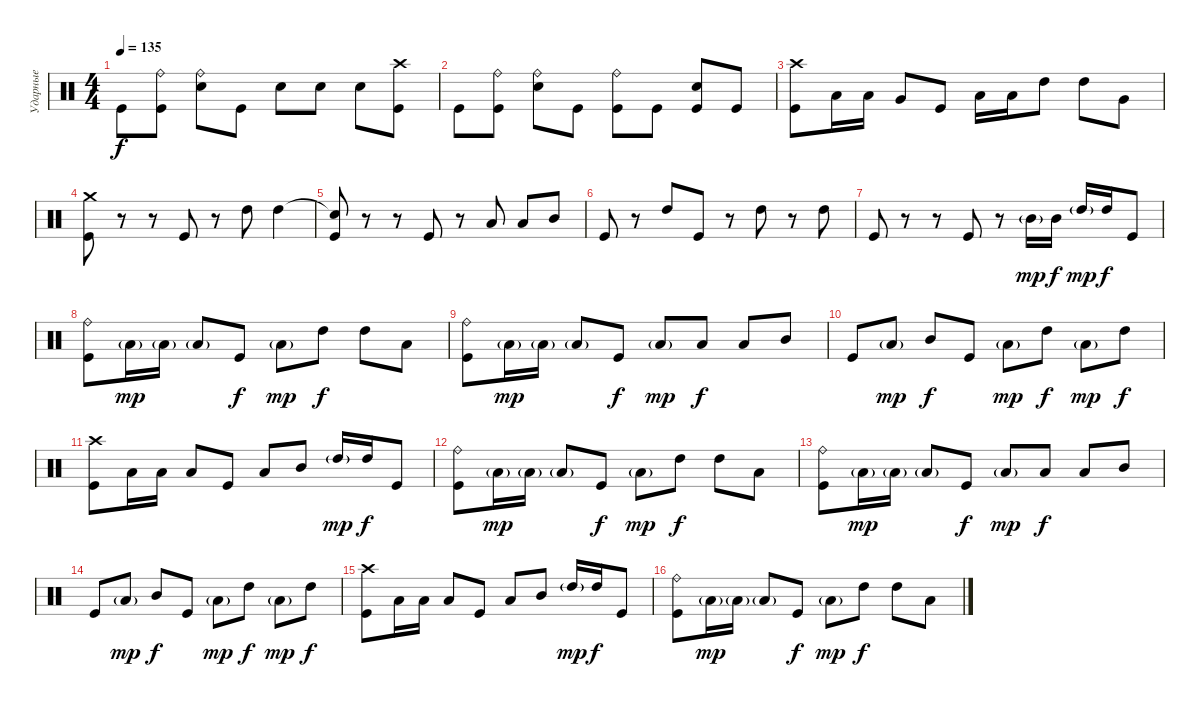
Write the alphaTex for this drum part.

\track ("Ударные" "Ударные") {instrument percussion}
\staff {score}
\articulation defaults
\ts (4 4)
\tempo 135
\clef neutral
\ks c "Kick (hit)".8{dy f}
("Ride (bell)" "Kick (hit)").8 ("Ride (bell)" "Electric Snare (hit)").8 "Kick (hit)".8 "Electric Snare (hit)".8 "Electric Snare (hit)".8 "Electric Snare (hit)".8 ("Crash high (hit)" "Kick (hit)").8 |
"Kick (hit)".8 ("Ride (bell)" "Kick (hit)").8 ("Ride (bell)" "Electric Snare (hit)").8 "Kick (hit)".8 ("Ride (bell)" "Kick (hit)").8 "Kick (hit)".8 ("Electric Snare (hit)" "Kick (hit)").8 "Kick (hit)".8 |
("Crash high (hit)" "Kick (hit)").8 "Low Tom (hit)".16 "Low Tom (hit)".16 "Very Low Tom (hit)".8 "Kick (hit)".8 "Low Tom (hit)".16 "Low Tom (hit)".16 "High Tom (hit)".8 "High Tom (hit)".8 "Very Low Tom (hit)".8 |
("Crash medium (hit)" "Kick (hit)").8 r.8 r.8 "Kick (hit)".8 r.8 "High Tom (hit)".8 "High Tom (hit)".4 |
("Snare (hit)"{t} "Kick (hit)").8 r.8 r.8 "Kick (hit)".8 r.8 "Low Tom (hit)".8 "Low Tom (hit)".8 "Mid Tom (hit)".8 |
"Kick (hit)".8 r.8 "High Tom (hit)".8 "Kick (hit)".8 r.8 "High Tom (hit)".8 r.8 "High Tom (hit)".8 |
"Kick (hit)".8 r.8 r.8 "Kick (hit)".8 r.8 "Mid Tom (hit)"{g}.16{dy mp} "Mid Tom (hit)".16{dy f} "High Tom (hit)"{g}.16{dy mp} "High Tom (hit)".16{dy f} "Kick (hit)".8 |
("Ride (bell)" "Kick (hit)").8 "Low Tom (hit)"{g}.16{dy mp} "Low Tom (hit)"{g}.16 "Low Tom (hit)"{g}.8 "Kick (hit)".8{dy f} "Low Tom (hit)"{g}.8{dy mp} "High Tom (hit)".8{dy f} "High Tom (hit)".8 "Low Tom (hit)".8 |
("Ride (bell)" "Kick (hit)").8 "Low Tom (hit)"{g}.16{dy mp} "Low Tom (hit)"{g}.16 "Low Tom (hit)"{g}.8 "Kick (hit)".8{dy f} "Low Tom (hit)"{g}.8{dy mp} "Low Tom (hit)".8{dy f} "Low Tom (hit)".8 "Mid Tom (hit)".8 |
"Kick (hit)".8 "Low Tom (hit)"{g}.8{dy mp} "Mid Tom (hit)".8{dy f} "Kick (hit)".8 "Low Tom (hit)"{g}.8{dy mp} "High Tom (hit)".8{dy f} "Low Tom (hit)"{g}.8{dy mp} "High Tom (hit)".8{dy f} |
("Crash high (hit)" "Kick (hit)").8 "Low Tom (hit)".16 "Low Tom (hit)".16 "Low Tom (hit)".8 "Kick (hit)".8 "Low Tom (hit)".8 "Mid Tom (hit)".8 "High Tom (hit)"{g}.16{dy mp} "High Tom (hit)".16{dy f} "Kick (hit)".8 |
("Ride (bell)" "Kick (hit)").8 "Low Tom (hit)"{g}.16{dy mp} "Low Tom (hit)"{g}.16 "Low Tom (hit)"{g}.8 "Kick (hit)".8{dy f} "Low Tom (hit)"{g}.8{dy mp} "High Tom (hit)".8{dy f} "High Tom (hit)".8 "Low Tom (hit)".8 |
("Ride (bell)" "Kick (hit)").8 "Low Tom (hit)"{g}.16{dy mp} "Low Tom (hit)"{g}.16 "Low Tom (hit)"{g}.8 "Kick (hit)".8{dy f} "Low Tom (hit)"{g}.8{dy mp} "Low Tom (hit)".8{dy f} "Low Tom (hit)".8 "Mid Tom (hit)".8 |
"Kick (hit)".8 "Low Tom (hit)"{g}.8{dy mp} "Mid Tom (hit)".8{dy f} "Kick (hit)".8 "Low Tom (hit)"{g}.8{dy mp} "High Tom (hit)".8{dy f} "Low Tom (hit)"{g}.8{dy mp} "High Tom (hit)".8{dy f} |
("Crash high (hit)" "Kick (hit)").8 "Low Tom (hit)".16 "Low Tom (hit)".16 "Low Tom (hit)".8 "Kick (hit)".8 "Low Tom (hit)".8 "Mid Tom (hit)".8 "High Tom (hit)"{g}.16{dy mp} "High Tom (hit)".16{dy f} "Kick (hit)".8 |
("Ride (bell)" "Kick (hit)").8 "Low Tom (hit)"{g}.16{dy mp} "Low Tom (hit)"{g}.16 "Low Tom (hit)"{g}.8 "Kick (hit)".8{dy f} "Low Tom (hit)"{g}.8{dy mp} "High Tom (hit)".8{dy f} "High Tom (hit)".8 "Low Tom (hit)".8
